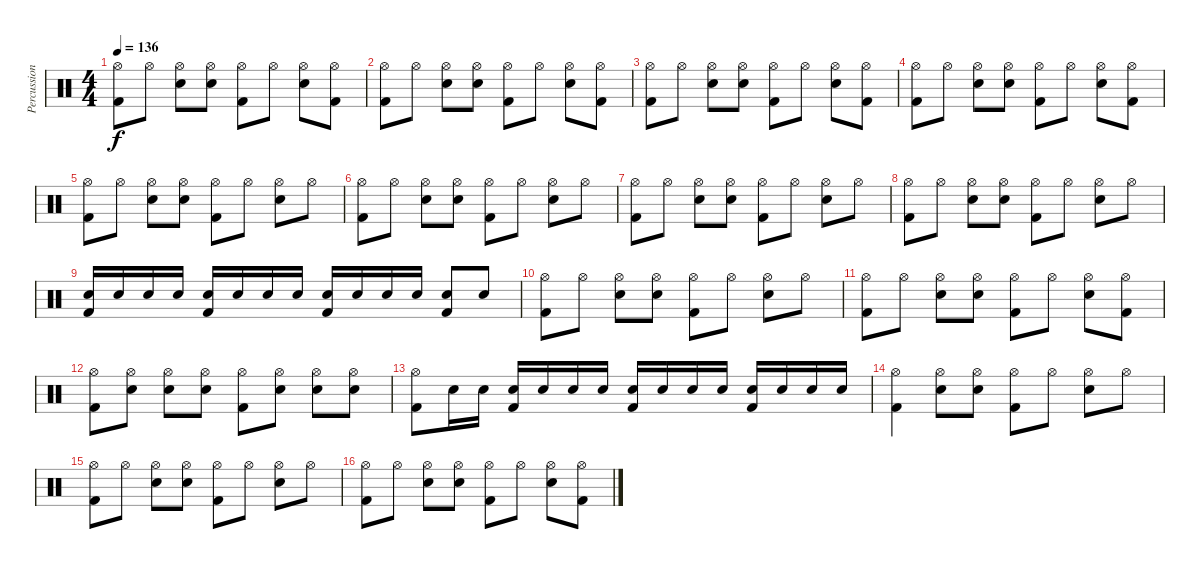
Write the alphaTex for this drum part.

\track ("Percussion" "Percussion") {instrument percussion}
\staff {score}
\articulation defaults
\ts (4 4)
\tempo 136
\clef neutral
\ks c
("Hi-Hat (open)" "Kick (hit) 2").8{dy f} "Hi-Hat (open)".8 ("Hi-Hat (open)" "Snare (hit) 2").8 ("Hi-Hat (open)" "Snare (hit) 2").8 ("Hi-Hat (open)" "Kick (hit) 2").8 "Hi-Hat (open)".8 ("Hi-Hat (open)" "Snare (hit) 2").8 ("Hi-Hat (open)" "Kick (hit) 2").8 |
("Hi-Hat (open)" "Kick (hit) 2").8 "Hi-Hat (open)".8 ("Hi-Hat (open)" "Snare (hit) 2").8 ("Hi-Hat (open)" "Snare (hit) 2").8 ("Hi-Hat (open)" "Kick (hit) 2").8 "Hi-Hat (open)".8 ("Hi-Hat (open)" "Snare (hit) 2").8 ("Hi-Hat (open)" "Kick (hit) 2").8 |
("Hi-Hat (open)" "Kick (hit) 2").8 "Hi-Hat (open)".8 ("Hi-Hat (open)" "Snare (hit) 2").8 ("Hi-Hat (open)" "Snare (hit) 2").8 ("Hi-Hat (open)" "Kick (hit) 2").8 "Hi-Hat (open)".8 ("Hi-Hat (open)" "Snare (hit) 2").8 ("Hi-Hat (open)" "Kick (hit) 2").8 |
("Hi-Hat (open)" "Kick (hit) 2").8 "Hi-Hat (open)".8 ("Hi-Hat (open)" "Snare (hit) 2").8 ("Hi-Hat (open)" "Snare (hit) 2").8 ("Hi-Hat (open)" "Kick (hit) 2").8 "Hi-Hat (open)".8 ("Hi-Hat (open)" "Snare (hit) 2").8 ("Hi-Hat (open)" "Kick (hit) 2").8 |
("Hi-Hat (open)" "Kick (hit) 2").8 "Hi-Hat (open)".8 ("Hi-Hat (open)" "Snare (hit) 2").8 ("Hi-Hat (open)" "Snare (hit) 2").8 ("Hi-Hat (open)" "Kick (hit) 2").8 "Hi-Hat (open)".8 ("Hi-Hat (open)" "Snare (hit) 2").8 "Hi-Hat (open)".8 |
("Hi-Hat (open)" "Kick (hit) 2").8 "Hi-Hat (open)".8 ("Hi-Hat (open)" "Snare (hit) 2").8 ("Hi-Hat (open)" "Snare (hit) 2").8 ("Hi-Hat (open)" "Kick (hit) 2").8 "Hi-Hat (open)".8 ("Hi-Hat (open)" "Snare (hit) 2").8 "Hi-Hat (open)".8 |
("Hi-Hat (open)" "Kick (hit) 2").8 "Hi-Hat (open)".8 ("Hi-Hat (open)" "Snare (hit) 2").8 ("Hi-Hat (open)" "Snare (hit) 2").8 ("Hi-Hat (open)" "Kick (hit) 2").8 "Hi-Hat (open)".8 ("Hi-Hat (open)" "Snare (hit) 2").8 "Hi-Hat (open)".8 |
("Hi-Hat (open)" "Kick (hit) 2").8 "Hi-Hat (open)".8 ("Hi-Hat (open)" "Snare (hit) 2").8 ("Hi-Hat (open)" "Snare (hit) 2").8 ("Hi-Hat (open)" "Kick (hit) 2").8 "Hi-Hat (open)".8 ("Hi-Hat (open)" "Snare (hit) 2").8 "Hi-Hat (open)".8 |
("Snare (hit) 2" "Kick (hit) 2").16 "Snare (hit) 2".16 "Snare (hit) 2".16 "Snare (hit) 2".16 ("Snare (hit) 2" "Kick (hit) 2").16 "Snare (hit) 2".16 "Snare (hit) 2".16 "Snare (hit) 2".16 ("Snare (hit) 2" "Kick (hit) 2").16 "Snare (hit) 2".16 "Snare (hit) 2".16 "Snare (hit) 2".16 ("Snare (hit) 2" "Kick (hit) 2").8 "Snare (hit) 2".8 |
("Hi-Hat (open)" "Kick (hit) 2").8 "Hi-Hat (open)".8 ("Hi-Hat (open)" "Snare (hit) 2").8 ("Hi-Hat (open)" "Snare (hit) 2").8 ("Hi-Hat (open)" "Kick (hit) 2").8 "Hi-Hat (open)".8 ("Hi-Hat (open)" "Snare (hit) 2").8 "Hi-Hat (open)".8 |
("Hi-Hat (open)" "Kick (hit) 2").8 "Hi-Hat (open)".8 ("Hi-Hat (open)" "Snare (hit) 2").8 ("Hi-Hat (open)" "Snare (hit) 2").8 ("Hi-Hat (open)" "Kick (hit) 2").8 "Hi-Hat (open)".8 ("Hi-Hat (open)" "Snare (hit) 2").8 ("Hi-Hat (open)" "Kick (hit) 2").8 |
("Hi-Hat (open)" "Kick (hit) 2").8 ("Hi-Hat (open)" "Snare (hit) 2").8 ("Hi-Hat (open)" "Snare (hit) 2").8 ("Hi-Hat (open)" "Snare (hit) 2").8 ("Hi-Hat (open)" "Kick (hit) 2").8 ("Hi-Hat (open)" "Snare (hit) 2").8 ("Hi-Hat (open)" "Snare (hit) 2").8 ("Hi-Hat (open)" "Snare (hit) 2").8 |
("Hi-Hat (open)" "Kick (hit) 2").8 "Snare (hit) 2".16 "Snare (hit) 2".16 ("Snare (hit) 2" "Kick (hit) 2").16 "Snare (hit) 2".16 "Snare (hit) 2".16 "Snare (hit) 2".16 ("Snare (hit) 2" "Kick (hit) 2").16 "Snare (hit) 2".16 "Snare (hit) 2".16 "Snare (hit) 2".16 ("Snare (hit) 2" "Kick (hit) 2").16 "Snare (hit) 2".16 "Snare (hit) 2".16 "Snare (hit) 2".16 |
("Hi-Hat (open)" "Kick (hit) 2").4 ("Hi-Hat (open)" "Snare (hit) 2").8 ("Hi-Hat (open)" "Snare (hit) 2").8 ("Hi-Hat (open)" "Kick (hit) 2").8 "Hi-Hat (open)".8 ("Hi-Hat (open)" "Snare (hit) 2").8 "Hi-Hat (open)".8 |
("Hi-Hat (open)" "Kick (hit) 2").8 "Hi-Hat (open)".8 ("Hi-Hat (open)" "Snare (hit) 2").8 ("Hi-Hat (open)" "Snare (hit) 2").8 ("Hi-Hat (open)" "Kick (hit) 2").8 "Hi-Hat (open)".8 ("Hi-Hat (open)" "Snare (hit) 2").8 "Hi-Hat (open)".8 |
("Hi-Hat (open)" "Kick (hit) 2").8 "Hi-Hat (open)".8 ("Hi-Hat (open)" "Snare (hit) 2").8 ("Hi-Hat (open)" "Snare (hit) 2").8 ("Hi-Hat (open)" "Kick (hit) 2").8 "Hi-Hat (open)".8 ("Hi-Hat (open)" "Snare (hit) 2").8 ("Hi-Hat (open)" "Kick (hit) 2").8
